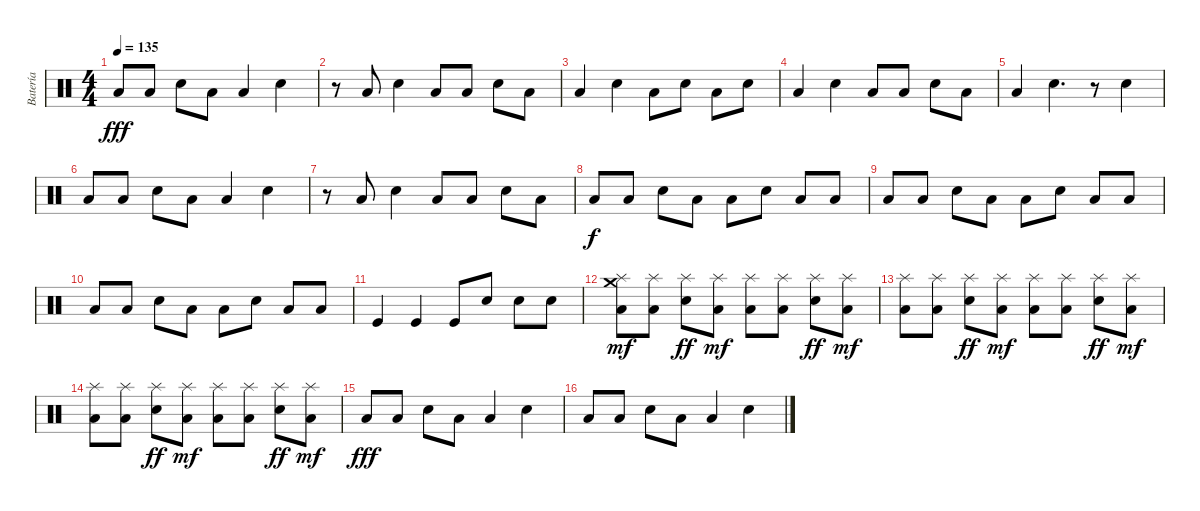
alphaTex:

\track ("Batería" "Batería") {instrument percussion}
\staff {score}
\articulation defaults
\ts (4 4)
\tempo 135
\clef neutral
\ks c "Low Floor Tom (hit)".8{dy fff} "Low Floor Tom (hit)".8 "Electric Snare (hit)".8 "Low Floor Tom (hit)".8 "Low Floor Tom (hit)".4 "Electric Snare (hit)".4
|
r.8 "Low Floor Tom (hit)".8 "Electric Snare (hit)".4 "Low Floor Tom (hit)".8 "Low Floor Tom (hit)".8 "Electric Snare (hit)".8 "Low Floor Tom (hit)".8 |
"Low Floor Tom (hit)".4 "Electric Snare (hit)".4 "Low Floor Tom (hit)".8 "Electric Snare (hit)".8 "Low Floor Tom (hit)".8 "Electric Snare (hit)".8 |
"Low Floor Tom (hit)".4 "Electric Snare (hit)".4 "Low Floor Tom (hit)".8 "Low Floor Tom (hit)".8 "Electric Snare (hit)".8 "Low Floor Tom (hit)".8 |
"Low Floor Tom (hit)".4 "Electric Snare (hit)".4{d} r.8 "Electric Snare (hit)".4 |
"Low Floor Tom (hit)".8 "Low Floor Tom (hit)".8 "Electric Snare (hit)".8 "Low Floor Tom (hit)".8 "Low Floor Tom (hit)".4 "Electric Snare (hit)".4 |
r.8 "Low Floor Tom (hit)".8 "Electric Snare (hit)".4 "Low Floor Tom (hit)".8 "Low Floor Tom (hit)".8 "Electric Snare (hit)".8 "Low Floor Tom (hit)".8 |
"Low Floor Tom (hit)".8{dy f} "Low Floor Tom (hit)".8 "Electric Snare (hit)".8 "Low Floor Tom (hit)".8 "Low Floor Tom (hit)".8 "Electric Snare (hit)".8 "Low Floor Tom (hit)".8 "Low Floor Tom (hit)".8 |
"Low Floor Tom (hit)".8 "Low Floor Tom (hit)".8 "Electric Snare (hit)".8 "Low Floor Tom (hit)".8 "Low Floor Tom (hit)".8 "Electric Snare (hit)".8 "Low Floor Tom (hit)".8 "Low Floor Tom (hit)".8 |
"Low Floor Tom (hit)".8 "Low Floor Tom (hit)".8 "Electric Snare (hit)".8 "Low Floor Tom (hit)".8 "Low Floor Tom (hit)".8 "Electric Snare (hit)".8 "Low Floor Tom (hit)".8 "Low Floor Tom (hit)".8 |
"Kick (hit)".4 "Kick (hit)".4 "Kick (hit)".8 "Electric Snare (hit)".8 "Electric Snare (hit)".8 "Electric Snare (hit)".8 |
("Crash medium (hit)" "Splash (hit)" "Low Floor Tom (hit)").8{dy mf} ("Splash (hit)" "Low Floor Tom (hit)").8 ("Splash (hit)" "Electric Snare (hit)").8{dy ff} ("Splash (hit)" "Low Floor Tom (hit)").8{dy mf} ("Splash (hit)" "Low Floor Tom (hit)").8 ("Splash (hit)" "Low Floor Tom (hit)").8 ("Splash (hit)" "Electric Snare (hit)").8{dy ff} ("Splash (hit)" "Low Floor Tom (hit)").8{dy mf} |
("Splash (hit)" "Low Floor Tom (hit)").8 ("Splash (hit)" "Low Floor Tom (hit)").8 ("Splash (hit)" "Electric Snare (hit)").8{dy ff} ("Splash (hit)" "Low Floor Tom (hit)").8{dy mf} ("Splash (hit)" "Low Floor Tom (hit)").8 ("Splash (hit)" "Low Floor Tom (hit)").8 ("Splash (hit)" "Electric Snare (hit)").8{dy ff} ("Splash (hit)" "Low Floor Tom (hit)").8{dy mf} |
("Splash (hit)" "Low Floor Tom (hit)").8 ("Splash (hit)" "Low Floor Tom (hit)").8 ("Splash (hit)" "Electric Snare (hit)").8{dy ff} ("Splash (hit)" "Low Floor Tom (hit)").8{dy mf} ("Splash (hit)" "Low Floor Tom (hit)").8 ("Splash (hit)" "Low Floor Tom (hit)").8 ("Splash (hit)" "Electric Snare (hit)").8{dy ff} ("Splash (hit)" "Low Floor Tom (hit)").8{dy mf} |
"Low Floor Tom (hit)".8{dy fff} "Low Floor Tom (hit)".8 "Electric Snare (hit)".8 "Low Floor Tom (hit)".8 "Low Floor Tom (hit)".4 "Electric Snare (hit)".4 |
"Low Floor Tom (hit)".8 "Low Floor Tom (hit)".8 "Electric Snare (hit)".8 "Low Floor Tom (hit)".8 "Low Floor Tom (hit)".4 "Electric Snare (hit)".4
